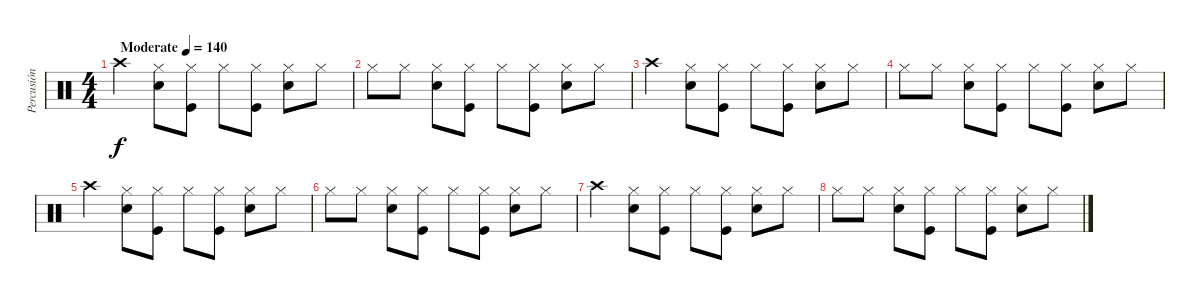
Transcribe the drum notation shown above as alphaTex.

\track ("Percusión" "Percusión") {instrument percussion}
\staff {score}
\articulation defaults
\ts (4 4)
\tempo (140 "Moderate")
\clef neutral
\ks c "Crash high (hit)".4{dy f}
("Hi-Hat (closed)" "Snare (hit) 2").8 ("Hi-Hat (closed)" "Kick (hit)").8 "Hi-Hat (closed)".8 ("Hi-Hat (closed)" "Kick (hit)").8 ("Hi-Hat (closed)" "Snare (hit) 2").8 "Hi-Hat (closed)".8 |
"Hi-Hat (closed)".8 "Hi-Hat (closed)".8 ("Hi-Hat (closed)" "Snare (hit) 2").8 ("Hi-Hat (closed)" "Kick (hit)").8 "Hi-Hat (closed)".8 ("Hi-Hat (closed)" "Kick (hit)").8 ("Hi-Hat (closed)" "Snare (hit) 2").8 "Hi-Hat (closed)".8 |
"Crash high (hit)".4 ("Hi-Hat (closed)" "Snare (hit) 2").8 ("Hi-Hat (closed)" "Kick (hit)").8 "Hi-Hat (closed)".8 ("Hi-Hat (closed)" "Kick (hit)").8 ("Hi-Hat (closed)" "Snare (hit) 2").8 "Hi-Hat (closed)".8 |
"Hi-Hat (closed)".8 "Hi-Hat (closed)".8 ("Hi-Hat (closed)" "Snare (hit) 2").8 ("Hi-Hat (closed)" "Kick (hit)").8 "Hi-Hat (closed)".8 ("Hi-Hat (closed)" "Kick (hit)").8 ("Hi-Hat (closed)" "Snare (hit) 2").8 "Hi-Hat (closed)".8 |
"Crash high (hit)".4 ("Hi-Hat (closed)" "Snare (hit) 2").8 ("Hi-Hat (closed)" "Kick (hit)").8 "Hi-Hat (closed)".8 ("Hi-Hat (closed)" "Kick (hit)").8 ("Hi-Hat (closed)" "Snare (hit) 2").8 "Hi-Hat (closed)".8 |
"Hi-Hat (closed)".8 "Hi-Hat (closed)".8 ("Hi-Hat (closed)" "Snare (hit) 2").8 ("Hi-Hat (closed)" "Kick (hit)").8 "Hi-Hat (closed)".8 ("Hi-Hat (closed)" "Kick (hit)").8 ("Hi-Hat (closed)" "Snare (hit) 2").8 "Hi-Hat (closed)".8 |
"Crash high (hit)".4 ("Hi-Hat (closed)" "Snare (hit) 2").8 ("Hi-Hat (closed)" "Kick (hit)").8 "Hi-Hat (closed)".8 ("Hi-Hat (closed)" "Kick (hit)").8 ("Hi-Hat (closed)" "Snare (hit) 2").8 "Hi-Hat (closed)".8 |
"Hi-Hat (closed)".8 "Hi-Hat (closed)".8 ("Hi-Hat (closed)" "Snare (hit) 2").8 ("Hi-Hat (closed)" "Kick (hit)").8 "Hi-Hat (closed)".8 ("Hi-Hat (closed)" "Kick (hit)").8 ("Hi-Hat (closed)" "Snare (hit) 2").8 "Hi-Hat (closed)".8
